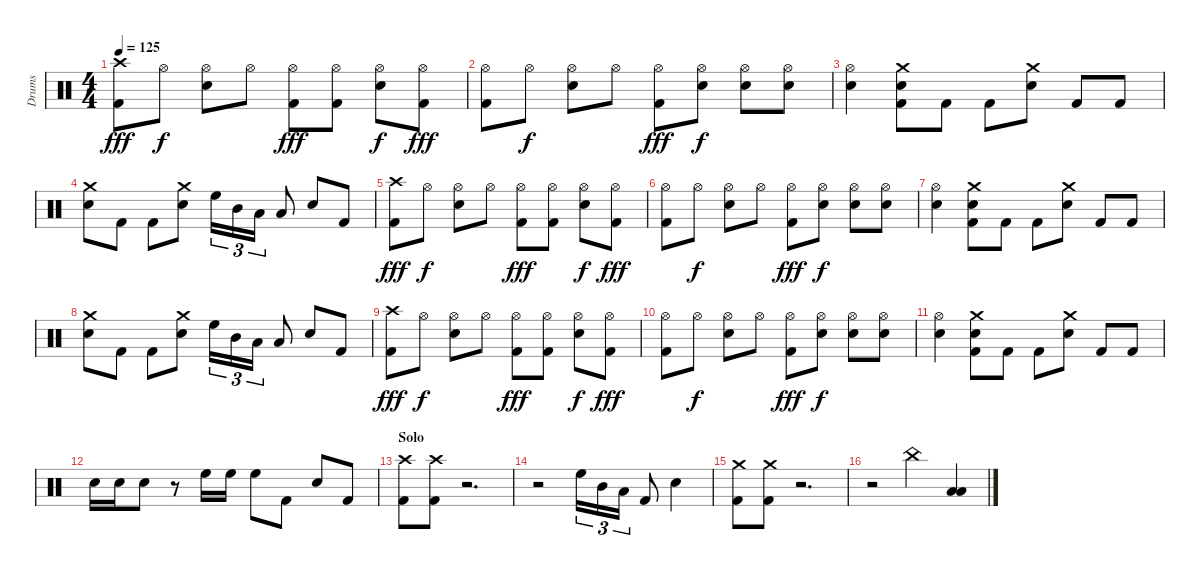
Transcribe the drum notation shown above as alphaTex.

\track ("Drums" "Drums") {instrument percussion}
\staff {score}
\articulation defaults
\ts (4 4)
\tempo 125
\clef neutral
\ks c
("Crash high (hit)" "Kick (hit) 2").8{dy fff} "Hi-Hat (open)".8{dy f} ("Hi-Hat (open)" "Snare (hit) 2").8 "Hi-Hat (open)".8 ("Hi-Hat (open)" "Kick (hit) 2").8{dy fff} ("Hi-Hat (open)" "Kick (hit) 2").8 ("Hi-Hat (open)" "Snare (hit) 2").8{dy f} ("Hi-Hat (open)" "Kick (hit) 2").8{dy fff} |
("Hi-Hat (open)" "Kick (hit) 2").8 "Hi-Hat (open)".8{dy f} ("Hi-Hat (open)" "Snare (hit) 2").8 "Hi-Hat (open)".8 ("Hi-Hat (open)" "Kick (hit) 2").8{dy fff} ("Hi-Hat (open)" "Snare (hit) 2").8{dy f} ("Hi-Hat (open)" "Snare (hit) 2").8 ("Hi-Hat (open)" "Snare (hit) 2").8 |
("Hi-Hat (open)" "Snare (hit) 2").4 ("Crash medium (hit)" "Snare (hit) 2" "Kick (hit) 2").8 "Kick (hit) 2".8 "Kick (hit) 2".8 ("Crash medium (hit)" "Snare (hit) 2").8 "Kick (hit) 2".8 "Kick (hit) 2".8 |
("Crash medium (hit)" "Snare (hit) 2").8 "Kick (hit) 2".8 "Kick (hit) 2".8 ("Crash medium (hit)" "Snare (hit) 2").8 "High Floor Tom (hit)".16{tu (3 2)} "Mid Tom (hit)".16{tu (3 2)} "Low Tom (hit)".16{tu (3 2)} "Low Floor Tom (hit)".8 "Snare (hit) 2".8 "Kick (hit) 2".8 |
("Crash high (hit)" "Kick (hit) 2").8{dy fff} "Hi-Hat (open)".8{dy f} ("Hi-Hat (open)" "Snare (hit) 2").8 "Hi-Hat (open)".8 ("Hi-Hat (open)" "Kick (hit) 2").8{dy fff} ("Hi-Hat (open)" "Kick (hit) 2").8 ("Hi-Hat (open)" "Snare (hit) 2").8{dy f} ("Hi-Hat (open)" "Kick (hit) 2").8{dy fff} |
("Hi-Hat (open)" "Kick (hit) 2").8 "Hi-Hat (open)".8{dy f} ("Hi-Hat (open)" "Snare (hit) 2").8 "Hi-Hat (open)".8 ("Hi-Hat (open)" "Kick (hit) 2").8{dy fff} ("Hi-Hat (open)" "Snare (hit) 2").8{dy f} ("Hi-Hat (open)" "Snare (hit) 2").8 ("Hi-Hat (open)" "Snare (hit) 2").8 |
("Hi-Hat (open)" "Snare (hit) 2").4 ("Crash medium (hit)" "Snare (hit) 2" "Kick (hit) 2").8 "Kick (hit) 2".8 "Kick (hit) 2".8 ("Crash medium (hit)" "Snare (hit) 2").8 "Kick (hit) 2".8 "Kick (hit) 2".8 |
("Crash medium (hit)" "Snare (hit) 2").8 "Kick (hit) 2".8 "Kick (hit) 2".8 ("Crash medium (hit)" "Snare (hit) 2").8 "High Floor Tom (hit)".16{tu (3 2)} "Mid Tom (hit)".16{tu (3 2)} "Low Tom (hit)".16{tu (3 2)} "Low Floor Tom (hit)".8 "Snare (hit) 2".8 "Kick (hit) 2".8 |
("Crash high (hit)" "Kick (hit) 2").8{dy fff} "Hi-Hat (open)".8{dy f} ("Hi-Hat (open)" "Snare (hit) 2").8 "Hi-Hat (open)".8 ("Hi-Hat (open)" "Kick (hit) 2").8{dy fff} ("Hi-Hat (open)" "Kick (hit) 2").8 ("Hi-Hat (open)" "Snare (hit) 2").8{dy f} ("Hi-Hat (open)" "Kick (hit) 2").8{dy fff} |
("Hi-Hat (open)" "Kick (hit) 2").8 "Hi-Hat (open)".8{dy f} ("Hi-Hat (open)" "Snare (hit) 2").8 "Hi-Hat (open)".8 ("Hi-Hat (open)" "Kick (hit) 2").8{dy fff} ("Hi-Hat (open)" "Snare (hit) 2").8{dy f} ("Hi-Hat (open)" "Snare (hit) 2").8 ("Hi-Hat (open)" "Snare (hit) 2").8 |
("Hi-Hat (open)" "Snare (hit) 2").4 ("Crash medium (hit)" "Snare (hit) 2" "Kick (hit) 2").8 "Kick (hit) 2".8 "Kick (hit) 2".8 ("Crash medium (hit)" "Snare (hit) 2").8 "Kick (hit) 2".8 "Kick (hit) 2".8 |
"Snare (hit) 2".16 "Snare (hit) 2".16 "Snare (hit) 2".8 r.8 "High Floor Tom (hit)".16 "High Floor Tom (hit)".16 "High Floor Tom (hit)".8 "Kick (hit) 2".8 "Snare (hit) 2".8 "Kick (hit) 2".8 |
\section ("" "Solo")
("Crash high (hit)" "Kick (hit) 2").8 ("Crash high (hit)" "Kick (hit) 2").8 r.2{d} |
r.2 "High Floor Tom (hit)".16{tu (3 2)} "Mid Tom (hit)".16{tu (3 2)} "Low Tom (hit)".16{tu (3 2)} "Kick (hit) 2".8 "Snare (hit) 2".4 |
("Crash medium (hit)" "Kick (hit) 2").8 ("Crash medium (hit)" "Kick (hit) 2").8 r.2{d} |
r.2 "China (hit)".4 ("Low Floor Tom (hit)" "Low Floor Tom (hit)").4
